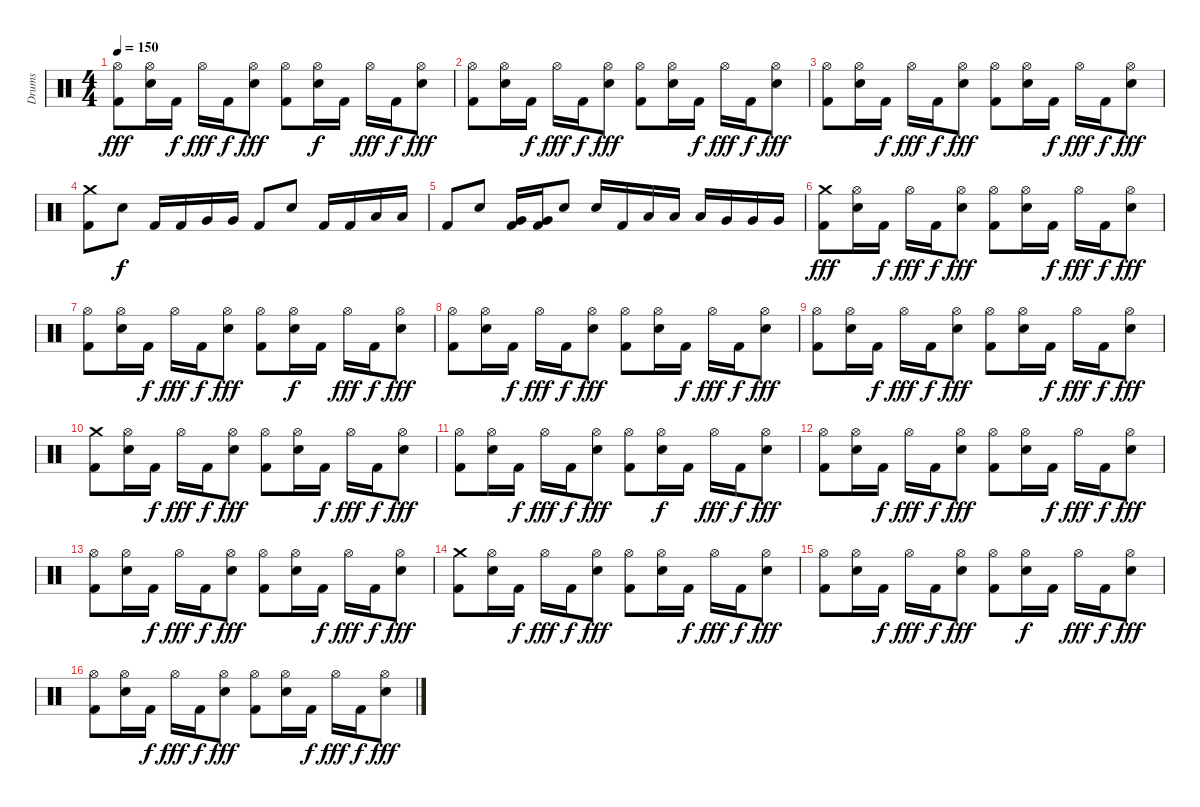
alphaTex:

\track ("Drums" "Drums") {instrument percussion}
\staff {score}
\articulation defaults
\ts (4 4)
\tempo 150
\clef neutral
\ks c
("Hi-Hat (open)" "Kick (hit) 2").8{dy fff} ("Hi-Hat (open)" "Electric Snare (hit)").16 "Kick (hit) 2".16{dy f} "Hi-Hat (open)".16{dy fff} "Kick (hit) 2".16{dy f} ("Hi-Hat (open)" "Electric Snare (hit)").8{dy fff} ("Hi-Hat (open)" "Kick (hit) 2").8 ("Hi-Hat (open)" "Electric Snare (hit)").16{dy f} "Kick (hit) 2".16 "Hi-Hat (open)".16{dy fff} "Kick (hit) 2".16{dy f} ("Hi-Hat (open)" "Electric Snare (hit)").8{dy fff} |
("Hi-Hat (open)" "Kick (hit) 2").8 ("Hi-Hat (open)" "Electric Snare (hit)").16 "Kick (hit) 2".16{dy f} "Hi-Hat (open)".16{dy fff} "Kick (hit) 2".16{dy f} ("Hi-Hat (open)" "Electric Snare (hit)").8{dy fff} ("Hi-Hat (open)" "Kick (hit) 2").8 ("Hi-Hat (open)" "Electric Snare (hit)").16 "Kick (hit) 2".16{dy f} "Hi-Hat (open)".16{dy fff} "Kick (hit) 2".16{dy f} ("Hi-Hat (open)" "Electric Snare (hit)").8{dy fff} |
("Hi-Hat (open)" "Kick (hit) 2").8 ("Hi-Hat (open)" "Electric Snare (hit)").16 "Kick (hit) 2".16{dy f} "Hi-Hat (open)".16{dy fff} "Kick (hit) 2".16{dy f} ("Hi-Hat (open)" "Electric Snare (hit)").8{dy fff} ("Hi-Hat (open)" "Kick (hit) 2").8 ("Hi-Hat (open)" "Electric Snare (hit)").16 "Kick (hit) 2".16{dy f} "Hi-Hat (open)".16{dy fff} "Kick (hit) 2".16{dy f} ("Hi-Hat (open)" "Electric Snare (hit)").8{dy fff} |
("Crash medium (hit)" "Kick (hit) 2").8 "Electric Snare (hit)".8{dy f} "Kick (hit) 2".16 "Kick (hit) 2".16 "Very Low Tom (hit)".16 "Very Low Tom (hit)".16 "Kick (hit) 2".8 "Electric Snare (hit)".8 "Kick (hit) 2".16 "Kick (hit) 2".16 "Low Tom (hit)".16 "Low Tom (hit)".16 |
"Kick (hit) 2".8 "Electric Snare (hit)".8 ("Very Low Tom (hit)" "Kick (hit) 2").16 ("Very Low Tom (hit)" "Kick (hit) 2").16 "Electric Snare (hit)".8 "Electric Snare (hit)".16 "Kick (hit) 2".16 "Low Tom (hit)".16 "Low Tom (hit)".16 "Low Tom (hit)".16 "Very Low Tom (hit)".16 "Very Low Tom (hit)".16 "Very Low Tom (hit)".16 |
("Crash medium (hit)" "Kick (hit) 2").8{dy fff} ("Hi-Hat (open)" "Electric Snare (hit)").16 "Kick (hit) 2".16{dy f} "Hi-Hat (open)".16{dy fff} "Kick (hit) 2".16{dy f} ("Hi-Hat (open)" "Electric Snare (hit)").8{dy fff} ("Hi-Hat (open)" "Kick (hit) 2").8 ("Hi-Hat (open)" "Electric Snare (hit)").16 "Kick (hit) 2".16{dy f} "Hi-Hat (open)".16{dy fff} "Kick (hit) 2".16{dy f} ("Hi-Hat (open)" "Electric Snare (hit)").8{dy fff} |
("Hi-Hat (open)" "Kick (hit) 2").8 ("Hi-Hat (open)" "Electric Snare (hit)").16 "Kick (hit) 2".16{dy f} "Hi-Hat (open)".16{dy fff} "Kick (hit) 2".16{dy f} ("Hi-Hat (open)" "Electric Snare (hit)").8{dy fff} ("Hi-Hat (open)" "Kick (hit) 2").8 ("Hi-Hat (open)" "Electric Snare (hit)").16{dy f} "Kick (hit) 2".16 "Hi-Hat (open)".16{dy fff} "Kick (hit) 2".16{dy f} ("Hi-Hat (open)" "Electric Snare (hit)").8{dy fff} |
("Hi-Hat (open)" "Kick (hit) 2").8 ("Hi-Hat (open)" "Electric Snare (hit)").16 "Kick (hit) 2".16{dy f} "Hi-Hat (open)".16{dy fff} "Kick (hit) 2".16{dy f} ("Hi-Hat (open)" "Electric Snare (hit)").8{dy fff} ("Hi-Hat (open)" "Kick (hit) 2").8 ("Hi-Hat (open)" "Electric Snare (hit)").16 "Kick (hit) 2".16{dy f} "Hi-Hat (open)".16{dy fff} "Kick (hit) 2".16{dy f} ("Hi-Hat (open)" "Electric Snare (hit)").8{dy fff} |
("Hi-Hat (open)" "Kick (hit) 2").8 ("Hi-Hat (open)" "Electric Snare (hit)").16 "Kick (hit) 2".16{dy f} "Hi-Hat (open)".16{dy fff} "Kick (hit) 2".16{dy f} ("Hi-Hat (open)" "Electric Snare (hit)").8{dy fff} ("Hi-Hat (open)" "Kick (hit) 2").8 ("Hi-Hat (open)" "Electric Snare (hit)").16 "Kick (hit) 2".16{dy f} "Hi-Hat (open)".16{dy fff} "Kick (hit) 2".16{dy f} ("Hi-Hat (open)" "Electric Snare (hit)").8{dy fff} |
("Crash medium (hit)" "Kick (hit) 2").8 ("Hi-Hat (open)" "Electric Snare (hit)").16 "Kick (hit) 2".16{dy f} "Hi-Hat (open)".16{dy fff} "Kick (hit) 2".16{dy f} ("Hi-Hat (open)" "Electric Snare (hit)").8{dy fff} ("Hi-Hat (open)" "Kick (hit) 2").8 ("Hi-Hat (open)" "Electric Snare (hit)").16 "Kick (hit) 2".16{dy f} "Hi-Hat (open)".16{dy fff} "Kick (hit) 2".16{dy f} ("Hi-Hat (open)" "Electric Snare (hit)").8{dy fff} |
("Hi-Hat (open)" "Kick (hit) 2").8 ("Hi-Hat (open)" "Electric Snare (hit)").16 "Kick (hit) 2".16{dy f} "Hi-Hat (open)".16{dy fff} "Kick (hit) 2".16{dy f} ("Hi-Hat (open)" "Electric Snare (hit)").8{dy fff} ("Hi-Hat (open)" "Kick (hit) 2").8 ("Hi-Hat (open)" "Electric Snare (hit)").16{dy f} "Kick (hit) 2".16 "Hi-Hat (open)".16{dy fff} "Kick (hit) 2".16{dy f} ("Hi-Hat (open)" "Electric Snare (hit)").8{dy fff} |
("Hi-Hat (open)" "Kick (hit) 2").8 ("Hi-Hat (open)" "Electric Snare (hit)").16 "Kick (hit) 2".16{dy f} "Hi-Hat (open)".16{dy fff} "Kick (hit) 2".16{dy f} ("Hi-Hat (open)" "Electric Snare (hit)").8{dy fff} ("Hi-Hat (open)" "Kick (hit) 2").8 ("Hi-Hat (open)" "Electric Snare (hit)").16 "Kick (hit) 2".16{dy f} "Hi-Hat (open)".16{dy fff} "Kick (hit) 2".16{dy f} ("Hi-Hat (open)" "Electric Snare (hit)").8{dy fff} |
("Hi-Hat (open)" "Kick (hit) 2").8 ("Hi-Hat (open)" "Electric Snare (hit)").16 "Kick (hit) 2".16{dy f} "Hi-Hat (open)".16{dy fff} "Kick (hit) 2".16{dy f} ("Hi-Hat (open)" "Electric Snare (hit)").8{dy fff} ("Hi-Hat (open)" "Kick (hit) 2").8 ("Hi-Hat (open)" "Electric Snare (hit)").16 "Kick (hit) 2".16{dy f} "Hi-Hat (open)".16{dy fff} "Kick (hit) 2".16{dy f} ("Hi-Hat (open)" "Electric Snare (hit)").8{dy fff} |
("Crash medium (hit)" "Kick (hit) 2").8 ("Hi-Hat (open)" "Electric Snare (hit)").16 "Kick (hit) 2".16{dy f} "Hi-Hat (open)".16{dy fff} "Kick (hit) 2".16{dy f} ("Hi-Hat (open)" "Electric Snare (hit)").8{dy fff} ("Hi-Hat (open)" "Kick (hit) 2").8 ("Hi-Hat (open)" "Electric Snare (hit)").16 "Kick (hit) 2".16{dy f} "Hi-Hat (open)".16{dy fff} "Kick (hit) 2".16{dy f} ("Hi-Hat (open)" "Electric Snare (hit)").8{dy fff} |
("Hi-Hat (open)" "Kick (hit) 2").8 ("Hi-Hat (open)" "Electric Snare (hit)").16 "Kick (hit) 2".16{dy f} "Hi-Hat (open)".16{dy fff} "Kick (hit) 2".16{dy f} ("Hi-Hat (open)" "Electric Snare (hit)").8{dy fff} ("Hi-Hat (open)" "Kick (hit) 2").8 ("Hi-Hat (open)" "Electric Snare (hit)").16{dy f} "Kick (hit) 2".16 "Hi-Hat (open)".16{dy fff} "Kick (hit) 2".16{dy f} ("Hi-Hat (open)" "Electric Snare (hit)").8{dy fff} |
("Hi-Hat (open)" "Kick (hit) 2").8 ("Hi-Hat (open)" "Electric Snare (hit)").16 "Kick (hit) 2".16{dy f} "Hi-Hat (open)".16{dy fff} "Kick (hit) 2".16{dy f} ("Hi-Hat (open)" "Electric Snare (hit)").8{dy fff} ("Hi-Hat (open)" "Kick (hit) 2").8 ("Hi-Hat (open)" "Electric Snare (hit)").16 "Kick (hit) 2".16{dy f} "Hi-Hat (open)".16{dy fff} "Kick (hit) 2".16{dy f} ("Hi-Hat (open)" "Electric Snare (hit)").8{dy fff}
